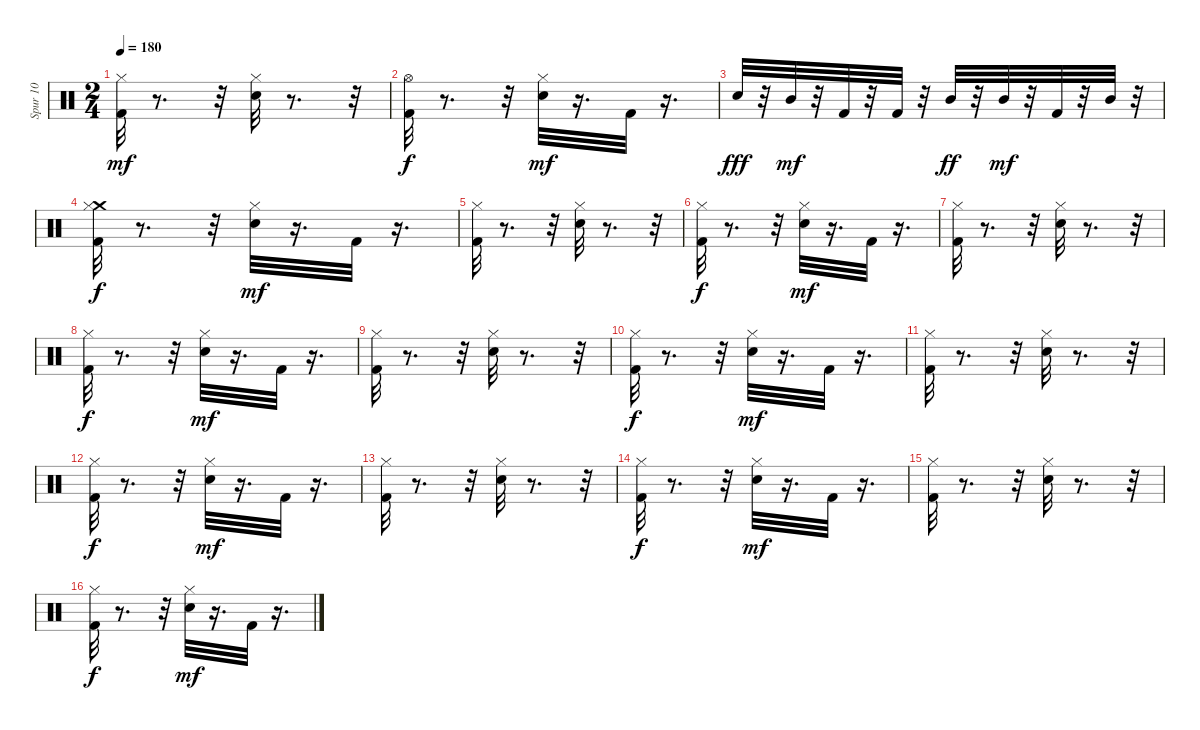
\track ("Spur 10" "Spur 10") {instrument percussion}
\staff {score}
\articulation defaults
\ts (2 4)
\tempo 180
\clef neutral
\ks c
("Hi-Hat (closed)" "Kick (hit) 2").32{dy mf} r.8{d} r.32 ("Electric Snare (hit)" "Hi-Hat (closed)").32 r.8{d} r.32 |
("Hi-Hat (open)" "Kick (hit) 2").32{dy f} r.8{d} r.32 ("Electric Snare (hit)" "Hi-Hat (closed)").32{dy mf} r.16{d} "Kick (hit) 2".32 r.16{d} |
"Electric Snare (hit)".32{dy fff} r.32 "Mid Tom (hit)".32{dy mf} r.32 "Kick (hit) 2".32 r.32 "Kick (hit) 2".32 r.32 "Mid Tom (hit)".32{dy ff} r.32 "Mid Tom (hit)".32{dy mf} r.32 "Kick (hit) 2".32 r.32 "Mid Tom (hit)".32 r.32 |
("Crash medium (hit)" "Hi-Hat (closed)" "Kick (hit) 2").32{dy f} r.8{d} r.32 ("Electric Snare (hit)" "Hi-Hat (closed)").32{dy mf} r.16{d} "Kick (hit) 2".32 r.16{d} |
("Hi-Hat (closed)" "Kick (hit) 2").32 r.8{d} r.32 ("Electric Snare (hit)" "Hi-Hat (closed)").32 r.8{d} r.32 |
("Hi-Hat (closed)" "Kick (hit) 2").32{dy f} r.8{d} r.32 ("Electric Snare (hit)" "Hi-Hat (closed)").32{dy mf} r.16{d} "Kick (hit) 2".32 r.16{d} |
("Hi-Hat (closed)" "Kick (hit) 2").32 r.8{d} r.32 ("Electric Snare (hit)" "Hi-Hat (closed)").32 r.8{d} r.32 |
("Hi-Hat (closed)" "Kick (hit) 2").32{dy f} r.8{d} r.32 ("Electric Snare (hit)" "Hi-Hat (closed)").32{dy mf} r.16{d} "Kick (hit) 2".32 r.16{d} |
("Hi-Hat (closed)" "Kick (hit) 2").32 r.8{d} r.32 ("Electric Snare (hit)" "Hi-Hat (closed)").32 r.8{d} r.32 |
("Hi-Hat (closed)" "Kick (hit) 2").32{dy f} r.8{d} r.32 ("Electric Snare (hit)" "Hi-Hat (closed)").32{dy mf} r.16{d} "Kick (hit) 2".32 r.16{d} |
("Hi-Hat (closed)" "Kick (hit) 2").32 r.8{d} r.32 ("Electric Snare (hit)" "Hi-Hat (closed)").32 r.8{d} r.32 |
("Hi-Hat (closed)" "Kick (hit) 2").32{dy f} r.8{d} r.32 ("Electric Snare (hit)" "Hi-Hat (closed)").32{dy mf} r.16{d} "Kick (hit) 2".32 r.16{d} |
("Hi-Hat (closed)" "Kick (hit) 2").32 r.8{d} r.32 ("Electric Snare (hit)" "Hi-Hat (closed)").32 r.8{d} r.32 |
("Hi-Hat (closed)" "Kick (hit) 2").32{dy f} r.8{d} r.32 ("Electric Snare (hit)" "Hi-Hat (closed)").32{dy mf} r.16{d} "Kick (hit) 2".32 r.16{d} |
("Hi-Hat (closed)" "Kick (hit) 2").32 r.8{d} r.32 ("Electric Snare (hit)" "Hi-Hat (closed)").32 r.8{d} r.32 |
("Hi-Hat (closed)" "Kick (hit) 2").32{dy f} r.8{d} r.32 ("Electric Snare (hit)" "Hi-Hat (closed)").32{dy mf} r.16{d} "Kick (hit) 2".32 r.16{d}
